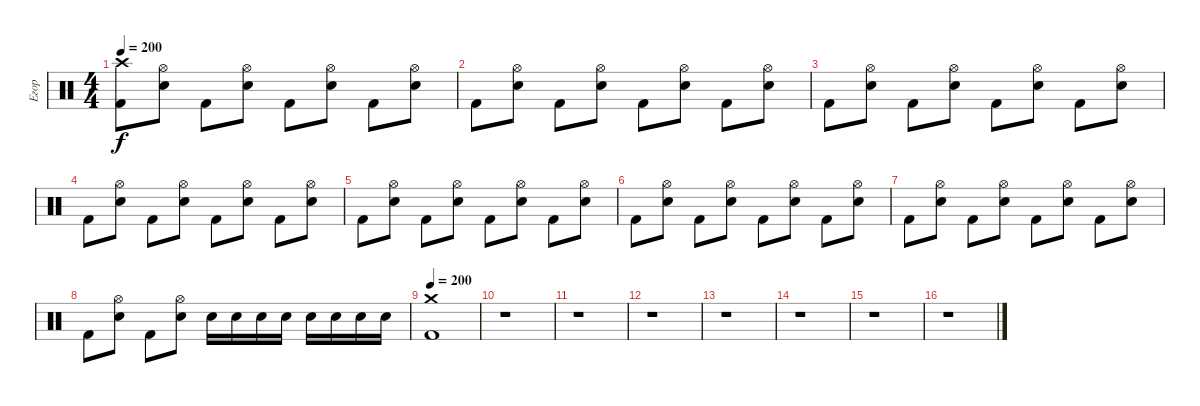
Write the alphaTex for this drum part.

\track ("Егор" "Егор") {instrument percussion}
\staff {score}
\articulation defaults
\ts (4 4)
\tempo 200
\clef neutral
\ks c
("Crash high (hit)" "Kick (hit) 2").8{dy f} ("Hi-Hat (open)" "Snare (hit) 2").8 "Kick (hit) 2".8 ("Hi-Hat (open)" "Snare (hit) 2").8 "Kick (hit) 2".8 ("Hi-Hat (open)" "Snare (hit) 2").8 "Kick (hit) 2".8 ("Hi-Hat (open)" "Snare (hit) 2").8 |
"Kick (hit) 2".8 ("Hi-Hat (open)" "Snare (hit) 2").8 "Kick (hit) 2".8 ("Hi-Hat (open)" "Snare (hit) 2").8 "Kick (hit) 2".8 ("Hi-Hat (open)" "Snare (hit) 2").8 "Kick (hit) 2".8 ("Hi-Hat (open)" "Snare (hit) 2").8 |
"Kick (hit) 2".8 ("Hi-Hat (open)" "Snare (hit) 2").8 "Kick (hit) 2".8 ("Hi-Hat (open)" "Snare (hit) 2").8 "Kick (hit) 2".8 ("Hi-Hat (open)" "Snare (hit) 2").8 "Kick (hit) 2".8 ("Hi-Hat (open)" "Snare (hit) 2").8 |
"Kick (hit) 2".8 ("Hi-Hat (open)" "Snare (hit) 2").8 "Kick (hit) 2".8 ("Hi-Hat (open)" "Snare (hit) 2").8 "Kick (hit) 2".8 ("Hi-Hat (open)" "Snare (hit) 2").8 "Kick (hit) 2".8 ("Hi-Hat (open)" "Snare (hit) 2").8 |
"Kick (hit) 2".8 ("Hi-Hat (open)" "Snare (hit) 2").8 "Kick (hit) 2".8 ("Hi-Hat (open)" "Snare (hit) 2").8 "Kick (hit) 2".8 ("Hi-Hat (open)" "Snare (hit) 2").8 "Kick (hit) 2".8 ("Hi-Hat (open)" "Snare (hit) 2").8 |
"Kick (hit) 2".8 ("Hi-Hat (open)" "Snare (hit) 2").8 "Kick (hit) 2".8 ("Hi-Hat (open)" "Snare (hit) 2").8 "Kick (hit) 2".8 ("Hi-Hat (open)" "Snare (hit) 2").8 "Kick (hit) 2".8 ("Hi-Hat (open)" "Snare (hit) 2").8 |
"Kick (hit) 2".8 ("Hi-Hat (open)" "Snare (hit) 2").8 "Kick (hit) 2".8 ("Hi-Hat (open)" "Snare (hit) 2").8 "Kick (hit) 2".8 ("Hi-Hat (open)" "Snare (hit) 2").8 "Kick (hit) 2".8 ("Hi-Hat (open)" "Snare (hit) 2").8 |
"Kick (hit) 2".8 ("Hi-Hat (open)" "Snare (hit) 2").8 "Kick (hit) 2".8 ("Hi-Hat (open)" "Snare (hit) 2").8 "Snare (hit) 2".16 "Snare (hit) 2".16 "Snare (hit) 2".16 "Snare (hit) 2".16 "Snare (hit) 2".16 "Snare (hit) 2".16 "Snare (hit) 2".16 "Snare (hit) 2".16 |
\tempo 200
("Crash medium (hit)" "Kick (hit) 2").1 |
r.1 |
r.1 |
r.1 |
r.1 |
r.1 |
r.1 |
r.1
